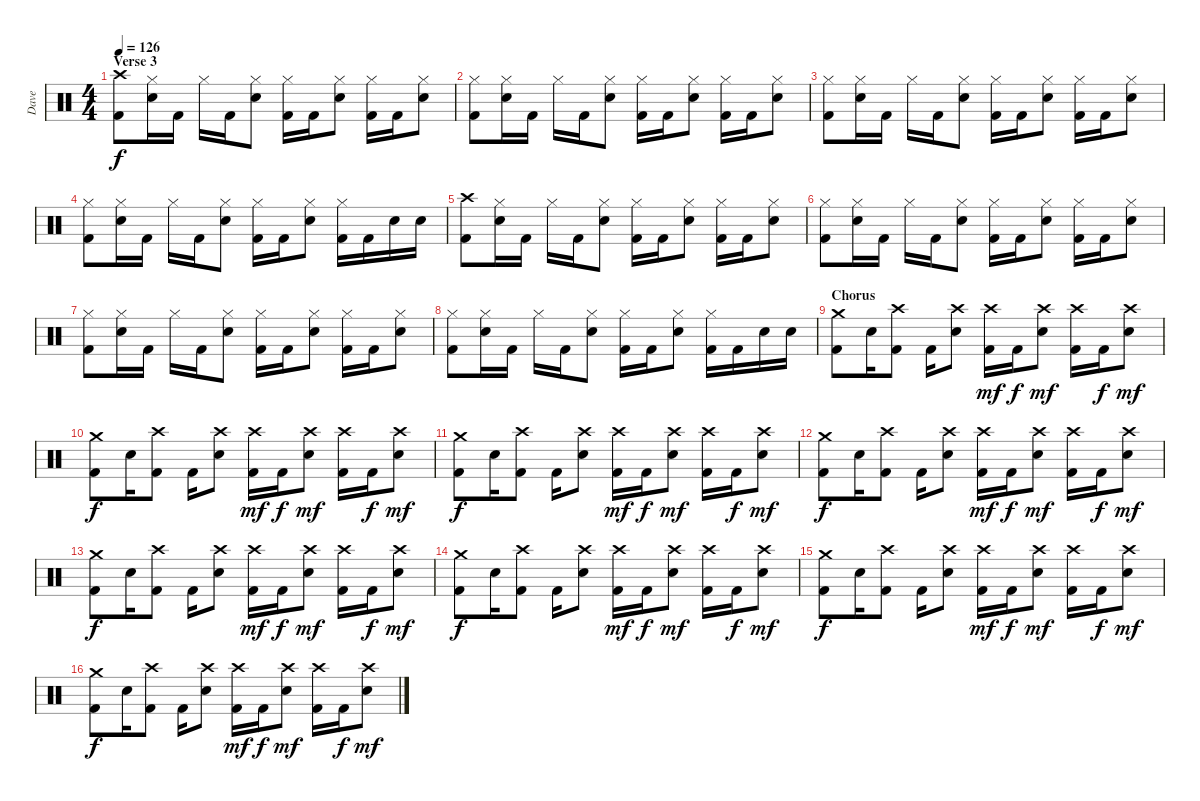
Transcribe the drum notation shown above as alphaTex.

\track ("Dave" "Dave") {instrument percussion}
\staff {score}
\articulation defaults
\ts (4 4)
\section ("" "Verse 3")
\tempo 126
\clef neutral
\ks c
("Kick (hit) 2" "Crash high (hit)").8{dy f} ("Electric Snare (hit)" "Hi-Hat (closed)").16 "Kick (hit) 2".16 "Hi-Hat (closed)".16 "Kick (hit) 2".16 ("Electric Snare (hit)" "Hi-Hat (closed)").8 ("Kick (hit) 2" "Hi-Hat (closed)").16 "Kick (hit) 2".16 ("Electric Snare (hit)" "Hi-Hat (closed)").8 ("Kick (hit) 2" "Hi-Hat (closed)").16 "Kick (hit) 2".16 ("Electric Snare (hit)" "Hi-Hat (closed)").8 |
("Kick (hit) 2" "Hi-Hat (closed)").8 ("Electric Snare (hit)" "Hi-Hat (closed)").16 "Kick (hit) 2".16 "Hi-Hat (closed)".16 "Kick (hit) 2".16 ("Electric Snare (hit)" "Hi-Hat (closed)").8 ("Kick (hit) 2" "Hi-Hat (closed)").16 "Kick (hit) 2".16 ("Electric Snare (hit)" "Hi-Hat (closed)").8 ("Kick (hit) 2" "Hi-Hat (closed)").16 "Kick (hit) 2".16 ("Electric Snare (hit)" "Hi-Hat (closed)").8 |
("Kick (hit) 2" "Hi-Hat (closed)").8 ("Electric Snare (hit)" "Hi-Hat (closed)").16 "Kick (hit) 2".16 "Hi-Hat (closed)".16 "Kick (hit) 2".16 ("Electric Snare (hit)" "Hi-Hat (closed)").8 ("Kick (hit) 2" "Hi-Hat (closed)").16 "Kick (hit) 2".16 ("Electric Snare (hit)" "Hi-Hat (closed)").8 ("Kick (hit) 2" "Hi-Hat (closed)").16 "Kick (hit) 2".16 ("Electric Snare (hit)" "Hi-Hat (closed)").8 |
("Kick (hit) 2" "Hi-Hat (closed)").8 ("Electric Snare (hit)" "Hi-Hat (closed)").16 "Kick (hit) 2".16 "Hi-Hat (closed)".16 "Kick (hit) 2".16 ("Electric Snare (hit)" "Hi-Hat (closed)").8 ("Kick (hit) 2" "Hi-Hat (closed)").16 "Kick (hit) 2".16 ("Electric Snare (hit)" "Hi-Hat (closed)").8 ("Kick (hit) 2" "Hi-Hat (closed)").16 "Kick (hit) 2".16 "Electric Snare (hit)".16 "Electric Snare (hit)".16 |
("Kick (hit) 2" "Crash high (hit)").8 ("Electric Snare (hit)" "Hi-Hat (closed)").16 "Kick (hit) 2".16 "Hi-Hat (closed)".16 "Kick (hit) 2".16 ("Electric Snare (hit)" "Hi-Hat (closed)").8 ("Kick (hit) 2" "Hi-Hat (closed)").16 "Kick (hit) 2".16 ("Electric Snare (hit)" "Hi-Hat (closed)").8 ("Kick (hit) 2" "Hi-Hat (closed)").16 "Kick (hit) 2".16 ("Electric Snare (hit)" "Hi-Hat (closed)").8 |
("Kick (hit) 2" "Hi-Hat (closed)").8 ("Electric Snare (hit)" "Hi-Hat (closed)").16 "Kick (hit) 2".16 "Hi-Hat (closed)".16 "Kick (hit) 2".16 ("Electric Snare (hit)" "Hi-Hat (closed)").8 ("Kick (hit) 2" "Hi-Hat (closed)").16 "Kick (hit) 2".16 ("Electric Snare (hit)" "Hi-Hat (closed)").8 ("Kick (hit) 2" "Hi-Hat (closed)").16 "Kick (hit) 2".16 ("Electric Snare (hit)" "Hi-Hat (closed)").8 |
("Kick (hit) 2" "Hi-Hat (closed)").8 ("Electric Snare (hit)" "Hi-Hat (closed)").16 "Kick (hit) 2".16 "Hi-Hat (closed)".16 "Kick (hit) 2".16 ("Electric Snare (hit)" "Hi-Hat (closed)").8 ("Kick (hit) 2" "Hi-Hat (closed)").16 "Kick (hit) 2".16 ("Electric Snare (hit)" "Hi-Hat (closed)").8 ("Kick (hit) 2" "Hi-Hat (closed)").16 "Kick (hit) 2".16 ("Electric Snare (hit)" "Hi-Hat (closed)").8 |
("Kick (hit) 2" "Hi-Hat (closed)").8 ("Electric Snare (hit)" "Hi-Hat (closed)").16 "Kick (hit) 2".16 "Hi-Hat (closed)".16 "Kick (hit) 2".16 ("Electric Snare (hit)" "Hi-Hat (closed)").8 ("Kick (hit) 2" "Hi-Hat (closed)").16 "Kick (hit) 2".16 ("Electric Snare (hit)" "Hi-Hat (closed)").8 ("Kick (hit) 2" "Hi-Hat (closed)").16 "Kick (hit) 2".16 "Electric Snare (hit)".16 "Electric Snare (hit)".16 |
\section ("" "Chorus")
("Kick (hit) 2" "Crash medium (hit)").8 "Electric Snare (hit)".16 ("Kick (hit) 2" "Crash high (hit)").8 "Kick (hit) 2".16 ("Electric Snare (hit)" "Crash high (hit)").8 ("Kick (hit) 2" "Crash high (hit)").16{dy mf} "Kick (hit) 2".16{dy f} ("Electric Snare (hit)" "Crash high (hit)").8{dy mf} ("Kick (hit) 2" "Crash high (hit)").16 "Kick (hit) 2".16{dy f} ("Electric Snare (hit)" "Crash high (hit)").8{dy mf} |
("Kick (hit) 2" "Crash medium (hit)").8{dy f} "Electric Snare (hit)".16 ("Kick (hit) 2" "Crash high (hit)").8 "Kick (hit) 2".16 ("Electric Snare (hit)" "Crash high (hit)").8 ("Kick (hit) 2" "Crash high (hit)").16{dy mf} "Kick (hit) 2".16{dy f} ("Electric Snare (hit)" "Crash high (hit)").8{dy mf} ("Kick (hit) 2" "Crash high (hit)").16 "Kick (hit) 2".16{dy f} ("Electric Snare (hit)" "Crash high (hit)").8{dy mf} |
("Kick (hit) 2" "Crash medium (hit)").8{dy f} "Electric Snare (hit)".16 ("Kick (hit) 2" "Crash high (hit)").8 "Kick (hit) 2".16 ("Electric Snare (hit)" "Crash high (hit)").8 ("Kick (hit) 2" "Crash high (hit)").16{dy mf} "Kick (hit) 2".16{dy f} ("Electric Snare (hit)" "Crash high (hit)").8{dy mf} ("Kick (hit) 2" "Crash high (hit)").16 "Kick (hit) 2".16{dy f} ("Electric Snare (hit)" "Crash high (hit)").8{dy mf} |
("Kick (hit) 2" "Crash medium (hit)").8{dy f} "Electric Snare (hit)".16 ("Kick (hit) 2" "Crash high (hit)").8 "Kick (hit) 2".16 ("Electric Snare (hit)" "Crash high (hit)").8 ("Kick (hit) 2" "Crash high (hit)").16{dy mf} "Kick (hit) 2".16{dy f} ("Electric Snare (hit)" "Crash high (hit)").8{dy mf} ("Kick (hit) 2" "Crash high (hit)").16 "Kick (hit) 2".16{dy f} ("Electric Snare (hit)" "Crash high (hit)").8{dy mf} |
("Kick (hit) 2" "Crash medium (hit)").8{dy f} "Electric Snare (hit)".16 ("Kick (hit) 2" "Crash high (hit)").8 "Kick (hit) 2".16 ("Electric Snare (hit)" "Crash high (hit)").8 ("Kick (hit) 2" "Crash high (hit)").16{dy mf} "Kick (hit) 2".16{dy f} ("Electric Snare (hit)" "Crash high (hit)").8{dy mf} ("Kick (hit) 2" "Crash high (hit)").16 "Kick (hit) 2".16{dy f} ("Electric Snare (hit)" "Crash high (hit)").8{dy mf} |
("Kick (hit) 2" "Crash medium (hit)").8{dy f} "Electric Snare (hit)".16 ("Kick (hit) 2" "Crash high (hit)").8 "Kick (hit) 2".16 ("Electric Snare (hit)" "Crash high (hit)").8 ("Kick (hit) 2" "Crash high (hit)").16{dy mf} "Kick (hit) 2".16{dy f} ("Electric Snare (hit)" "Crash high (hit)").8{dy mf} ("Kick (hit) 2" "Crash high (hit)").16 "Kick (hit) 2".16{dy f} ("Electric Snare (hit)" "Crash high (hit)").8{dy mf} |
("Kick (hit) 2" "Crash medium (hit)").8{dy f} "Electric Snare (hit)".16 ("Kick (hit) 2" "Crash high (hit)").8 "Kick (hit) 2".16 ("Electric Snare (hit)" "Crash high (hit)").8 ("Kick (hit) 2" "Crash high (hit)").16{dy mf} "Kick (hit) 2".16{dy f} ("Electric Snare (hit)" "Crash high (hit)").8{dy mf} ("Kick (hit) 2" "Crash high (hit)").16 "Kick (hit) 2".16{dy f} ("Electric Snare (hit)" "Crash high (hit)").8{dy mf} |
("Kick (hit) 2" "Crash medium (hit)").8{dy f} "Electric Snare (hit)".16 ("Kick (hit) 2" "Crash high (hit)").8 "Kick (hit) 2".16 ("Electric Snare (hit)" "Crash high (hit)").8 ("Kick (hit) 2" "Crash high (hit)").16{dy mf} "Kick (hit) 2".16{dy f} ("Electric Snare (hit)" "Crash high (hit)").8{dy mf} ("Kick (hit) 2" "Crash high (hit)").16 "Kick (hit) 2".16{dy f} ("Electric Snare (hit)" "Crash high (hit)").8{dy mf}
